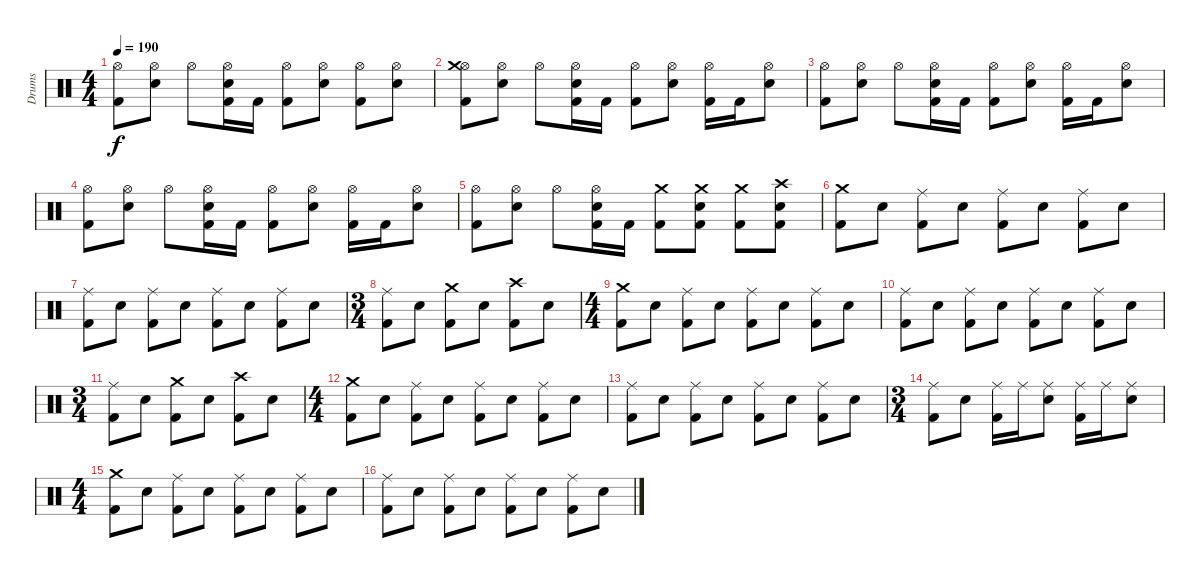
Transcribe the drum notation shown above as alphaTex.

\track ("Drums" "Drums") {instrument percussion}
\staff {score}
\articulation defaults
\ts (4 4)
\tempo 190
\clef neutral
\ks c
("Kick (hit) 2" "Hi-Hat (open)").8{dy f} ("Electric Snare (hit)" "Hi-Hat (open)").8 "Hi-Hat (open)".8 ("Kick (hit) 2" "Electric Snare (hit)" "Hi-Hat (open)").16 "Kick (hit) 2".16 ("Kick (hit) 2" "Hi-Hat (open)").8 ("Electric Snare (hit)" "Hi-Hat (open)").8 ("Kick (hit) 2" "Hi-Hat (open)").8 ("Electric Snare (hit)" "Hi-Hat (open)").8 |
("Kick (hit) 2" "Hi-Hat (open)" "Crash medium (hit)").8 ("Electric Snare (hit)" "Hi-Hat (open)").8 "Hi-Hat (open)".8 ("Kick (hit) 2" "Electric Snare (hit)" "Hi-Hat (open)").16 "Kick (hit) 2".16 ("Kick (hit) 2" "Hi-Hat (open)").8 ("Electric Snare (hit)" "Hi-Hat (open)").8 ("Kick (hit) 2" "Hi-Hat (open)").16 "Kick (hit) 2".16 ("Electric Snare (hit)" "Hi-Hat (open)").8 |
("Kick (hit) 2" "Hi-Hat (open)").8 ("Electric Snare (hit)" "Hi-Hat (open)").8 "Hi-Hat (open)".8 ("Kick (hit) 2" "Electric Snare (hit)" "Hi-Hat (open)").16 "Kick (hit) 2".16 ("Kick (hit) 2" "Hi-Hat (open)").8 ("Electric Snare (hit)" "Hi-Hat (open)").8 ("Kick (hit) 2" "Hi-Hat (open)").16 "Kick (hit) 2".16 ("Electric Snare (hit)" "Hi-Hat (open)").8 |
("Kick (hit) 2" "Hi-Hat (open)").8 ("Electric Snare (hit)" "Hi-Hat (open)").8 "Hi-Hat (open)".8 ("Kick (hit) 2" "Electric Snare (hit)" "Hi-Hat (open)").16 "Kick (hit) 2".16 ("Kick (hit) 2" "Hi-Hat (open)").8 ("Electric Snare (hit)" "Hi-Hat (open)").8 ("Kick (hit) 2" "Hi-Hat (open)").16 "Kick (hit) 2".16 ("Electric Snare (hit)" "Hi-Hat (open)").8 |
("Kick (hit) 2" "Hi-Hat (open)").8 ("Electric Snare (hit)" "Hi-Hat (open)").8 "Hi-Hat (open)".8 ("Kick (hit) 2" "Electric Snare (hit)" "Hi-Hat (open)").16 "Kick (hit) 2".16 ("Kick (hit) 2" "Crash medium (hit)").8 ("Kick (hit) 2" "Electric Snare (hit)" "Crash medium (hit)").8 ("Kick (hit) 2" "Crash medium (hit)").8 ("Kick (hit) 2" "Electric Snare (hit)" "Crash high (hit)").8 |
("Kick (hit) 2" "Crash medium (hit)").8 "Electric Snare (hit)".8 ("Kick (hit) 2" "Ride (middle)").8 "Electric Snare (hit)".8 ("Kick (hit) 2" "Ride (middle)").8 "Electric Snare (hit)".8 ("Kick (hit) 2" "Ride (middle)").8 "Electric Snare (hit)".8 |
("Kick (hit) 2" "Ride (middle)").8 "Electric Snare (hit)".8 ("Kick (hit) 2" "Ride (middle)").8 "Electric Snare (hit)".8 ("Kick (hit) 2" "Ride (middle)").8 "Electric Snare (hit)".8 ("Kick (hit) 2" "Ride (middle)").8 "Electric Snare (hit)".8 |
\ts (3 4)
("Kick (hit) 2" "Ride (middle)").8 "Electric Snare (hit)".8 ("Kick (hit) 2" "Crash medium (hit)").8 "Electric Snare (hit)".8 ("Kick (hit) 2" "Crash high (hit)").8 "Electric Snare (hit)".8 |
\ts (4 4)
("Kick (hit) 2" "Crash medium (hit)").8 "Electric Snare (hit)".8 ("Kick (hit) 2" "Ride (middle)").8 "Electric Snare (hit)".8 ("Kick (hit) 2" "Ride (middle)").8 "Electric Snare (hit)".8 ("Kick (hit) 2" "Ride (middle)").8 "Electric Snare (hit)".8 |
("Kick (hit) 2" "Ride (middle)").8 "Electric Snare (hit)".8 ("Kick (hit) 2" "Ride (middle)").8 "Electric Snare (hit)".8 ("Kick (hit) 2" "Ride (middle)").8 "Electric Snare (hit)".8 ("Kick (hit) 2" "Ride (middle)").8 "Electric Snare (hit)".8 |
\ts (3 4)
("Kick (hit) 2" "Ride (middle)").8 "Electric Snare (hit)".8 ("Kick (hit) 2" "Crash medium (hit)").8 "Electric Snare (hit)".8 ("Kick (hit) 2" "Crash high (hit)").8 "Electric Snare (hit)".8 |
\ts (4 4)
("Kick (hit) 2" "Crash medium (hit)").8 "Electric Snare (hit)".8 ("Kick (hit) 2" "Ride (middle)").8 "Electric Snare (hit)".8 ("Kick (hit) 2" "Ride (middle)").8 "Electric Snare (hit)".8 ("Kick (hit) 2" "Ride (middle)").8 "Electric Snare (hit)".8 |
("Kick (hit) 2" "Ride (middle)").8 "Electric Snare (hit)".8 ("Kick (hit) 2" "Ride (middle)").8 "Electric Snare (hit)".8 ("Kick (hit) 2" "Ride (middle)").8 "Electric Snare (hit)".8 ("Kick (hit) 2" "Ride (middle)").8 "Electric Snare (hit)".8 |
\ts (3 4)
("Kick (hit) 2" "Ride (middle)").8 "Electric Snare (hit)".8 ("Kick (hit) 2" "Ride (middle)").16 "Ride (middle)".16 ("Electric Snare (hit)" "Ride (middle)").8 ("Kick (hit) 2" "Ride (middle)").16 "Ride (middle)".16 ("Electric Snare (hit)" "Ride (middle)").8 |
\ts (4 4)
("Kick (hit) 2" "Crash medium (hit)").8 "Electric Snare (hit)".8 ("Kick (hit) 2" "Ride (middle)").8 "Electric Snare (hit)".8 ("Kick (hit) 2" "Ride (middle)").8 "Electric Snare (hit)".8 ("Kick (hit) 2" "Ride (middle)").8 "Electric Snare (hit)".8 |
("Kick (hit) 2" "Ride (middle)").8 "Electric Snare (hit)".8 ("Kick (hit) 2" "Ride (middle)").8 "Electric Snare (hit)".8 ("Kick (hit) 2" "Ride (middle)").8 "Electric Snare (hit)".8 ("Kick (hit) 2" "Ride (middle)").8 "Electric Snare (hit)".8
